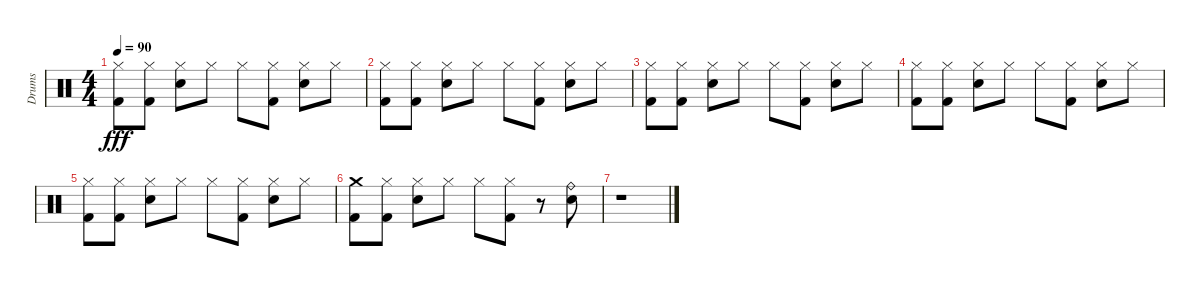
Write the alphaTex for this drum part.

\track ("Drums" "Drums") {instrument percussion}
\staff {score}
\articulation defaults
\ts (4 4)
\tempo 90
\clef neutral
\ks c
("Hi-Hat (closed)" "Kick (hit) 2").8{dy fff} ("Hi-Hat (closed)" "Kick (hit) 2").8 ("Hi-Hat (closed)" "Electric Snare (hit)").8 "Hi-Hat (closed)".8 "Hi-Hat (closed)".8 ("Hi-Hat (closed)" "Kick (hit) 2").8 ("Hi-Hat (closed)" "Electric Snare (hit)").8 "Hi-Hat (closed)".8 |
("Hi-Hat (closed)" "Kick (hit) 2").8 ("Hi-Hat (closed)" "Kick (hit) 2").8 ("Hi-Hat (closed)" "Electric Snare (hit)").8 "Hi-Hat (closed)".8 "Hi-Hat (closed)".8 ("Hi-Hat (closed)" "Kick (hit) 2").8 ("Hi-Hat (closed)" "Electric Snare (hit)").8 "Hi-Hat (closed)".8 |
("Hi-Hat (closed)" "Kick (hit) 2").8 ("Hi-Hat (closed)" "Kick (hit) 2").8 ("Hi-Hat (closed)" "Electric Snare (hit)").8 "Hi-Hat (closed)".8 "Hi-Hat (closed)".8 ("Hi-Hat (closed)" "Kick (hit) 2").8 ("Hi-Hat (closed)" "Electric Snare (hit)").8 "Hi-Hat (closed)".8 |
("Hi-Hat (closed)" "Kick (hit) 2").8 ("Hi-Hat (closed)" "Kick (hit) 2").8 ("Hi-Hat (closed)" "Electric Snare (hit)").8 "Hi-Hat (closed)".8 "Hi-Hat (closed)".8 ("Hi-Hat (closed)" "Kick (hit) 2").8 ("Hi-Hat (closed)" "Electric Snare (hit)").8 "Hi-Hat (closed)".8 |
("Hi-Hat (closed)" "Kick (hit) 2").8 ("Hi-Hat (closed)" "Kick (hit) 2").8 ("Hi-Hat (closed)" "Electric Snare (hit)").8 "Hi-Hat (closed)".8 "Hi-Hat (closed)".8 ("Hi-Hat (closed)" "Kick (hit) 2").8 ("Hi-Hat (closed)" "Electric Snare (hit)").8 "Hi-Hat (closed)".8 |
("Crash medium (hit)" "Kick (hit) 2").8 ("Hi-Hat (closed)" "Kick (hit) 2").8 ("Hi-Hat (closed)" "Electric Snare (hit)").8 "Hi-Hat (closed)".8 "Hi-Hat (closed)".8 ("Hi-Hat (closed)" "Kick (hit) 2").8 r.8 ("Ride (bell)" "Electric Snare (hit)").8 |
r.1
